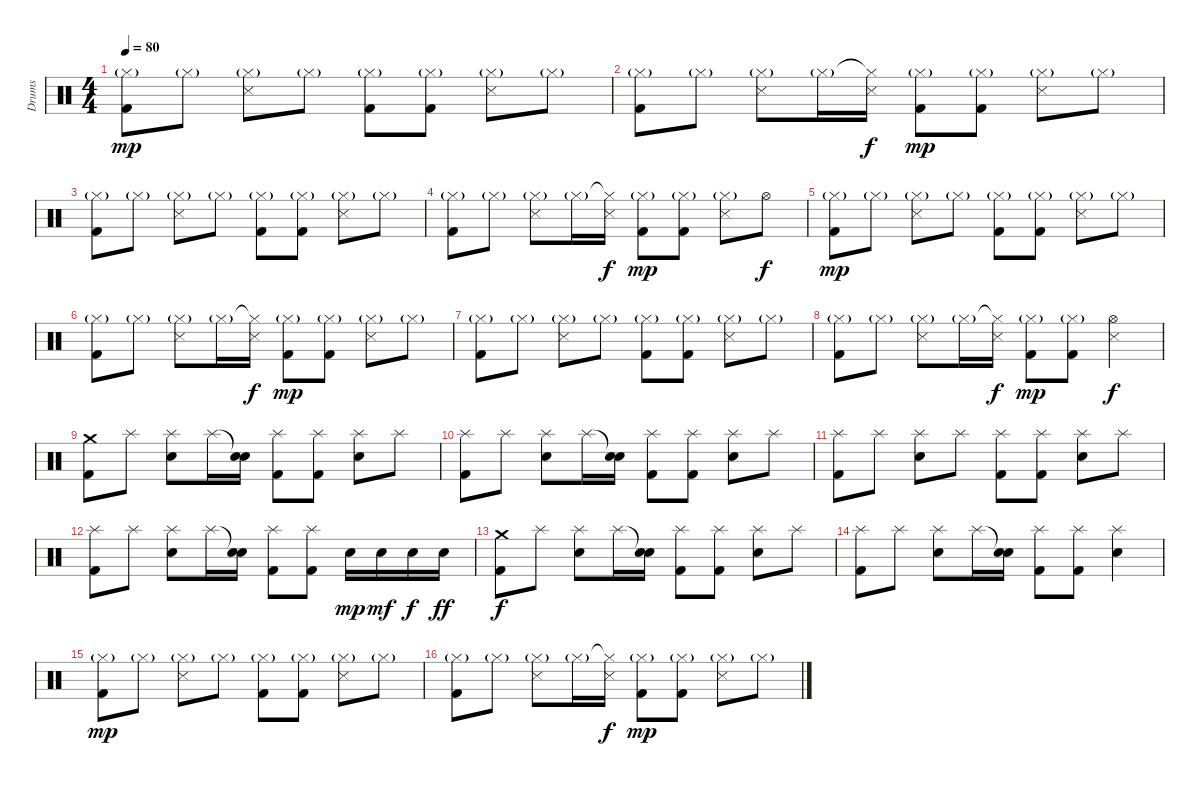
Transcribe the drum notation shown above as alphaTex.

\track ("Drums" "Drums") {instrument percussion}
\staff {score}
\articulation defaults
\ts (4 4)
\tempo 80
\clef neutral
\ks c
("Hi-Hat (closed)"{g} "Kick (hit) 2").8{dy mp} "Hi-Hat (closed)"{g}.8 ("Hi-Hat (closed)"{g} "Snare (side stick) 3").8 "Hi-Hat (closed)"{g}.8 ("Hi-Hat (closed)"{g} "Kick (hit) 2").8 ("Hi-Hat (closed)"{g} "Kick (hit) 2").8 ("Hi-Hat (closed)"{g} "Snare (side stick) 3").8 "Hi-Hat (closed)"{g}.8 |
("Hi-Hat (closed)"{g} "Kick (hit) 2").8 "Hi-Hat (closed)"{g}.8 ("Hi-Hat (closed)"{g} "Snare (side stick) 3").8 "Hi-Hat (closed)"{g}.16 ("Hi-Hat (closed)"{t} "Snare (side stick) 3").16{dy f} ("Hi-Hat (closed)"{g} "Kick (hit) 2").8{dy mp} ("Hi-Hat (closed)"{g} "Kick (hit) 2").8 ("Hi-Hat (closed)"{g} "Snare (side stick) 3").8 "Hi-Hat (closed)"{g}.8 |
("Hi-Hat (closed)"{g} "Kick (hit) 2").8 "Hi-Hat (closed)"{g}.8 ("Hi-Hat (closed)"{g} "Snare (side stick) 3").8 "Hi-Hat (closed)"{g}.8 ("Hi-Hat (closed)"{g} "Kick (hit) 2").8 ("Hi-Hat (closed)"{g} "Kick (hit) 2").8 ("Hi-Hat (closed)"{g} "Snare (side stick) 3").8 "Hi-Hat (closed)"{g}.8 |
("Hi-Hat (closed)"{g} "Kick (hit) 2").8 "Hi-Hat (closed)"{g}.8 ("Hi-Hat (closed)"{g} "Snare (side stick) 3").8 "Hi-Hat (closed)"{g}.16 ("Hi-Hat (closed)"{t} "Snare (side stick) 3").16{dy f} ("Hi-Hat (closed)"{g} "Kick (hit) 2").8{dy mp} ("Hi-Hat (closed)"{g} "Kick (hit) 2").8 ("Hi-Hat (closed)"{g} "Snare (side stick) 3").8 "Hi-Hat (open)".8{dy f} |
("Hi-Hat (closed)"{g} "Kick (hit) 2").8{dy mp} "Hi-Hat (closed)"{g}.8 ("Hi-Hat (closed)"{g} "Snare (side stick) 3").8 "Hi-Hat (closed)"{g}.8 ("Hi-Hat (closed)"{g} "Kick (hit) 2").8 ("Hi-Hat (closed)"{g} "Kick (hit) 2").8 ("Hi-Hat (closed)"{g} "Snare (side stick) 3").8 "Hi-Hat (closed)"{g}.8 |
("Hi-Hat (closed)"{g} "Kick (hit) 2").8 "Hi-Hat (closed)"{g}.8 ("Hi-Hat (closed)"{g} "Snare (side stick) 3").8 "Hi-Hat (closed)"{g}.16 ("Hi-Hat (closed)"{t} "Snare (side stick) 3").16{dy f} ("Hi-Hat (closed)"{g} "Kick (hit) 2").8{dy mp} ("Hi-Hat (closed)"{g} "Kick (hit) 2").8 ("Hi-Hat (closed)"{g} "Snare (side stick) 3").8 "Hi-Hat (closed)"{g}.8 |
("Hi-Hat (closed)"{g} "Kick (hit) 2").8 "Hi-Hat (closed)"{g}.8 ("Hi-Hat (closed)"{g} "Snare (side stick) 3").8 "Hi-Hat (closed)"{g}.8 ("Hi-Hat (closed)"{g} "Kick (hit) 2").8 ("Hi-Hat (closed)"{g} "Kick (hit) 2").8 ("Hi-Hat (closed)"{g} "Snare (side stick) 3").8 "Hi-Hat (closed)"{g}.8 |
("Hi-Hat (closed)"{g} "Kick (hit) 2").8 "Hi-Hat (closed)"{g}.8 ("Hi-Hat (closed)"{g} "Snare (side stick) 3").8 "Hi-Hat (closed)"{g}.16 ("Hi-Hat (closed)"{t} "Snare (side stick) 3").16{dy f} ("Hi-Hat (closed)"{g} "Kick (hit) 2").8{dy mp} ("Hi-Hat (closed)"{g} "Kick (hit) 2").8 ("Hi-Hat (open)" "Snare (side stick) 3").4{dy f} |
("Crash medium (hit)" "Kick (hit) 2").8 "Splash (hit)".8 ("Splash (hit)" "Snare (hit) 2").8 "Splash (hit)".16 ("Snare (hit)"{t} "Snare (hit) 2").16 ("Splash (hit)" "Kick (hit) 2").8 ("Splash (hit)" "Kick (hit) 2").8 ("Splash (hit)" "Snare (hit) 2").8 "Splash (hit)".8 |
("Splash (hit)" "Kick (hit) 2").8 "Splash (hit)".8 ("Splash (hit)" "Snare (hit) 2").8 "Splash (hit)".16 ("Snare (hit)"{t} "Snare (hit) 2").16 ("Splash (hit)" "Kick (hit) 2").8 ("Splash (hit)" "Kick (hit) 2").8 ("Splash (hit)" "Snare (hit) 2").8 "Splash (hit)".8 |
("Splash (hit)" "Kick (hit) 2").8 "Splash (hit)".8 ("Splash (hit)" "Snare (hit) 2").8 "Splash (hit)".8 ("Splash (hit)" "Kick (hit) 2").8 ("Splash (hit)" "Kick (hit) 2").8 ("Splash (hit)" "Snare (hit) 2").8 "Splash (hit)".8 |
("Splash (hit)" "Kick (hit) 2").8 "Splash (hit)".8 ("Splash (hit)" "Snare (hit) 2").8 "Splash (hit)".16 ("Snare (hit)"{t} "Snare (hit) 2").16 ("Splash (hit)" "Kick (hit) 2").8 ("Splash (hit)" "Kick (hit) 2").8 "Snare (hit) 2".16{dy mp} "Snare (hit) 2".16{dy mf} "Snare (hit) 2".16{dy f} "Snare (hit) 2".16{dy ff} |
("Crash medium (hit)" "Kick (hit) 2").8{dy f} "Splash (hit)".8 ("Splash (hit)" "Snare (hit) 2").8 "Splash (hit)".16 ("Snare (hit)"{t} "Snare (hit) 2").16 ("Splash (hit)" "Kick (hit) 2").8 ("Splash (hit)" "Kick (hit) 2").8 ("Splash (hit)" "Snare (hit) 2").8 "Splash (hit)".8 |
("Splash (hit)" "Kick (hit) 2").8 "Splash (hit)".8 ("Splash (hit)" "Snare (hit) 2").8 "Splash (hit)".16 ("Snare (hit)"{t} "Snare (hit) 2").16 ("Splash (hit)" "Kick (hit) 2").8 ("Splash (hit)" "Kick (hit) 2").8 ("Splash (hit)" "Snare (hit) 2").4 |
("Hi-Hat (closed)"{g} "Kick (hit) 2").8{dy mp} "Hi-Hat (closed)"{g}.8 ("Hi-Hat (closed)"{g} "Snare (side stick) 3").8 "Hi-Hat (closed)"{g}.8 ("Hi-Hat (closed)"{g} "Kick (hit) 2").8 ("Hi-Hat (closed)"{g} "Kick (hit) 2").8 ("Hi-Hat (closed)"{g} "Snare (side stick) 3").8 "Hi-Hat (closed)"{g}.8 |
("Hi-Hat (closed)"{g} "Kick (hit) 2").8 "Hi-Hat (closed)"{g}.8 ("Hi-Hat (closed)"{g} "Snare (side stick) 3").8 "Hi-Hat (closed)"{g}.16 ("Hi-Hat (closed)"{t} "Snare (side stick) 3").16{dy f} ("Hi-Hat (closed)"{g} "Kick (hit) 2").8{dy mp} ("Hi-Hat (closed)"{g} "Kick (hit) 2").8 ("Hi-Hat (closed)"{g} "Snare (side stick) 3").8 "Hi-Hat (closed)"{g}.8
